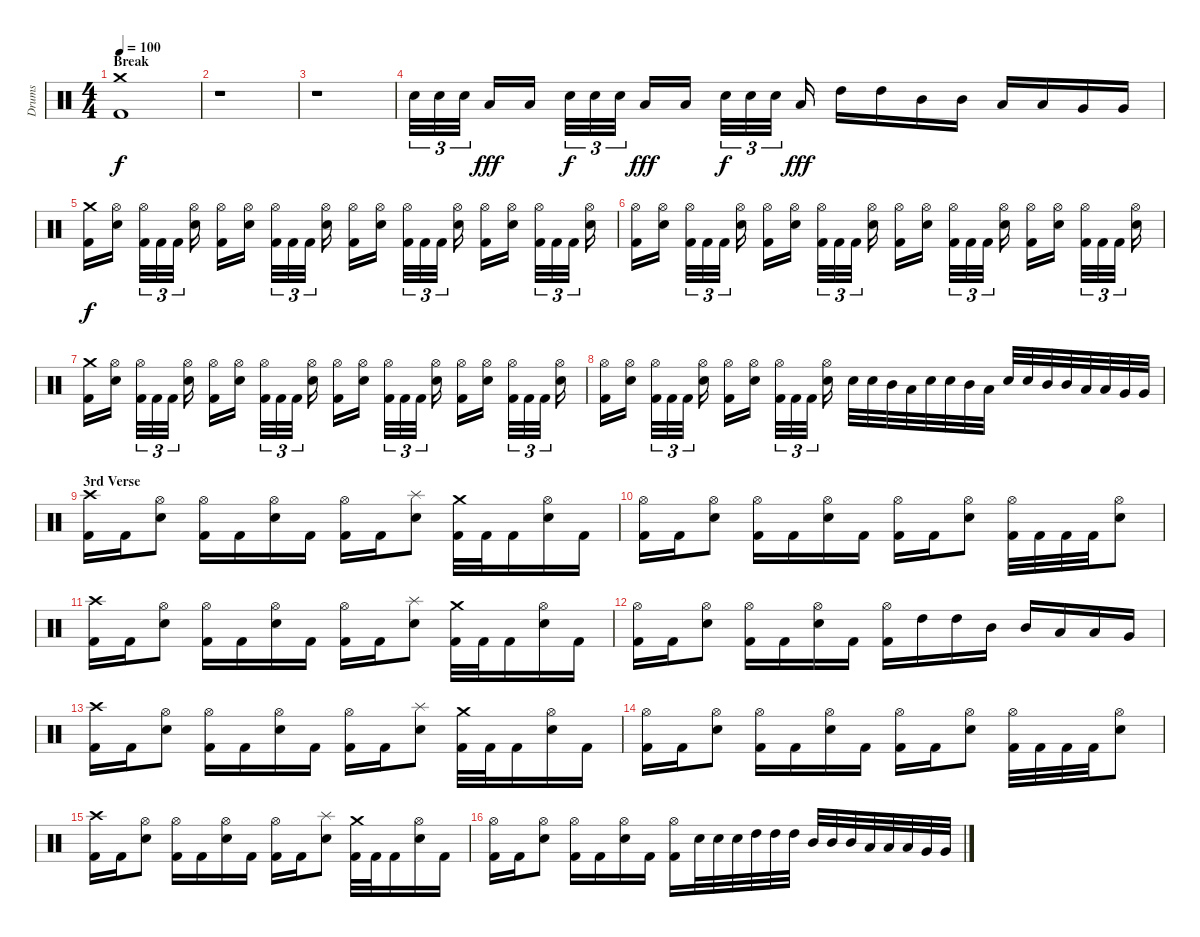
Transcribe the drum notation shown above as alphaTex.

\track ("Drums" "Drums") {instrument percussion}
\staff {score}
\articulation defaults
\ts (4 4)
\section ("" "Break")
\tempo 100
\clef neutral
\ks c
("Kick (hit) 2" "Crash medium (hit)").1{dy f} |
r.1 |
r.1 |
"Electric Snare (hit)".32{tu (3 2)} "Electric Snare (hit)".32{tu (3 2)} "Electric Snare (hit)".32{tu (3 2)} "Low Tom (hit)".16{dy fff} "Low Tom (hit)".16 "Electric Snare (hit)".32{tu (3 2) dy f} "Electric Snare (hit)".32{tu (3 2)} "Electric Snare (hit)".32{tu (3 2)} "Low Tom (hit)".16{dy fff} "Low Tom (hit)".16 "Electric Snare (hit)".32{tu (3 2) dy f} "Electric Snare (hit)".32{tu (3 2)} "Electric Snare (hit)".32{tu (3 2)} "Low Tom (hit)".16{dy fff} "High Tom (hit)".16 "High Tom (hit)".16 "Mid Tom (hit)".16 "Mid Tom (hit)".16 "Low Tom (hit)".16 "Low Tom (hit)".16 "Very Low Tom (hit)".16 "Very Low Tom (hit)".16 |
("Kick (hit) 2" "Crash medium (hit)").16{dy f} ("Electric Snare (hit)" "Hi-Hat (open)").16 ("Kick (hit) 2" "Hi-Hat (open)").32{tu (3 2)} "Kick (hit) 2".32{tu (3 2)} "Kick (hit) 2".32{tu (3 2)} ("Electric Snare (hit)" "Hi-Hat (open)").16 ("Kick (hit) 2" "Hi-Hat (open)").16 ("Electric Snare (hit)" "Hi-Hat (open)").16 ("Kick (hit) 2" "Hi-Hat (open)").32{tu (3 2)} "Kick (hit) 2".32{tu (3 2)} "Kick (hit) 2".32{tu (3 2)} ("Electric Snare (hit)" "Hi-Hat (open)").16 ("Kick (hit) 2" "Hi-Hat (open)").16 ("Electric Snare (hit)" "Hi-Hat (open)").16 ("Kick (hit) 2" "Hi-Hat (open)").32{tu (3 2)} "Kick (hit) 2".32{tu (3 2)} "Kick (hit) 2".32{tu (3 2)} ("Electric Snare (hit)" "Hi-Hat (open)").16 ("Kick (hit) 2" "Hi-Hat (open)").16 ("Electric Snare (hit)" "Hi-Hat (open)").16 ("Kick (hit) 2" "Hi-Hat (open)").32{tu (3 2)} "Kick (hit) 2".32{tu (3 2)} "Kick (hit) 2".32{tu (3 2)} ("Electric Snare (hit)" "Hi-Hat (open)").16 |
("Kick (hit) 2" "Hi-Hat (open)").16 ("Electric Snare (hit)" "Hi-Hat (open)").16 ("Kick (hit) 2" "Hi-Hat (open)").32{tu (3 2)} "Kick (hit) 2".32{tu (3 2)} "Kick (hit) 2".32{tu (3 2)} ("Electric Snare (hit)" "Hi-Hat (open)").16 ("Kick (hit) 2" "Hi-Hat (open)").16 ("Electric Snare (hit)" "Hi-Hat (open)").16 ("Kick (hit) 2" "Hi-Hat (open)").32{tu (3 2)} "Kick (hit) 2".32{tu (3 2)} "Kick (hit) 2".32{tu (3 2)} ("Electric Snare (hit)" "Hi-Hat (open)").16 ("Kick (hit) 2" "Hi-Hat (open)").16 ("Electric Snare (hit)" "Hi-Hat (open)").16 ("Kick (hit) 2" "Hi-Hat (open)").32{tu (3 2)} "Kick (hit) 2".32{tu (3 2)} "Kick (hit) 2".32{tu (3 2)} ("Electric Snare (hit)" "Hi-Hat (open)").16 ("Kick (hit) 2" "Hi-Hat (open)").16 ("Electric Snare (hit)" "Hi-Hat (open)").16 ("Kick (hit) 2" "Hi-Hat (open)").32{tu (3 2)} "Kick (hit) 2".32{tu (3 2)} "Kick (hit) 2".32{tu (3 2)} ("Electric Snare (hit)" "Hi-Hat (open)").16 |
("Kick (hit) 2" "Crash medium (hit)").16 ("Electric Snare (hit)" "Hi-Hat (open)").16 ("Kick (hit) 2" "Hi-Hat (open)").32{tu (3 2)} "Kick (hit) 2".32{tu (3 2)} "Kick (hit) 2".32{tu (3 2)} ("Electric Snare (hit)" "Hi-Hat (open)").16 ("Kick (hit) 2" "Hi-Hat (open)").16 ("Electric Snare (hit)" "Hi-Hat (open)").16 ("Kick (hit) 2" "Hi-Hat (open)").32{tu (3 2)} "Kick (hit) 2".32{tu (3 2)} "Kick (hit) 2".32{tu (3 2)} ("Electric Snare (hit)" "Hi-Hat (open)").16 ("Kick (hit) 2" "Hi-Hat (open)").16 ("Electric Snare (hit)" "Hi-Hat (open)").16 ("Kick (hit) 2" "Hi-Hat (open)").32{tu (3 2)} "Kick (hit) 2".32{tu (3 2)} "Kick (hit) 2".32{tu (3 2)} ("Electric Snare (hit)" "Hi-Hat (open)").16 ("Kick (hit) 2" "Hi-Hat (open)").16 ("Electric Snare (hit)" "Hi-Hat (open)").16 ("Kick (hit) 2" "Hi-Hat (open)").32{tu (3 2)} "Kick (hit) 2".32{tu (3 2)} "Kick (hit) 2".32{tu (3 2)} ("Electric Snare (hit)" "Hi-Hat (open)").16 |
("Kick (hit) 2" "Hi-Hat (open)").16 ("Electric Snare (hit)" "Hi-Hat (open)").16 ("Kick (hit) 2" "Hi-Hat (open)").32{tu (3 2)} "Kick (hit) 2".32{tu (3 2)} "Kick (hit) 2".32{tu (3 2)} ("Electric Snare (hit)" "Hi-Hat (open)").16 ("Kick (hit) 2" "Hi-Hat (open)").16 ("Electric Snare (hit)" "Hi-Hat (open)").16 ("Kick (hit) 2" "Hi-Hat (open)").32{tu (3 2)} "Kick (hit) 2".32{tu (3 2)} "Kick (hit) 2".32{tu (3 2)} ("Electric Snare (hit)" "Hi-Hat (open)").16 "Electric Snare (hit)".32 "Electric Snare (hit)".32 "Mid Tom (hit)".32 "Low Tom (hit)".32 "Electric Snare (hit)".32 "Electric Snare (hit)".32 "Mid Tom (hit)".32 "Low Tom (hit)".32 "Electric Snare (hit)".32 "Electric Snare (hit)".32 "Mid Tom (hit)".32 "Mid Tom (hit)".32 "Low Tom (hit)".32 "Low Tom (hit)".32 "Very Low Tom (hit)".32 "Very Low Tom (hit)".32 |
\section ("" "3rd Verse")
("Kick (hit) 2" "Crash high (hit)").16 "Kick (hit) 2".16 ("Electric Snare (hit)" "Hi-Hat (open)").8 ("Kick (hit) 2" "Hi-Hat (open)").16 "Kick (hit) 2".16 ("Electric Snare (hit)" "Hi-Hat (open)").16 "Kick (hit) 2".16 ("Kick (hit) 2" "Hi-Hat (open)").16 "Kick (hit) 2".16 ("Electric Snare (hit)" "Splash (hit)").8 ("Kick (hit) 2" "Crash medium (hit)").32 "Kick (hit) 2".32 "Kick (hit) 2".16 ("Electric Snare (hit)" "Hi-Hat (open)").16 "Kick (hit) 2".16 |
("Kick (hit) 2" "Hi-Hat (open)").16 "Kick (hit) 2".16 ("Electric Snare (hit)" "Hi-Hat (open)").8 ("Kick (hit) 2" "Hi-Hat (open)").16 "Kick (hit) 2".16 ("Electric Snare (hit)" "Hi-Hat (open)").16 "Kick (hit) 2".16 ("Kick (hit) 2" "Hi-Hat (open)").16 "Kick (hit) 2".16 ("Electric Snare (hit)" "Hi-Hat (open)").8 ("Kick (hit) 2" "Hi-Hat (open)").32 "Kick (hit) 2".32 "Kick (hit) 2".32 "Kick (hit) 2".32 ("Electric Snare (hit)" "Hi-Hat (open)").8 |
("Kick (hit) 2" "Crash high (hit)").16 "Kick (hit) 2".16 ("Electric Snare (hit)" "Hi-Hat (open)").8 ("Kick (hit) 2" "Hi-Hat (open)").16 "Kick (hit) 2".16 ("Electric Snare (hit)" "Hi-Hat (open)").16 "Kick (hit) 2".16 ("Kick (hit) 2" "Hi-Hat (open)").16 "Kick (hit) 2".16 ("Electric Snare (hit)" "Splash (hit)").8 ("Kick (hit) 2" "Crash medium (hit)").32 "Kick (hit) 2".32 "Kick (hit) 2".16 ("Electric Snare (hit)" "Hi-Hat (open)").16 "Kick (hit) 2".16 |
("Kick (hit) 2" "Hi-Hat (open)").16 "Kick (hit) 2".16 ("Electric Snare (hit)" "Hi-Hat (open)").8 ("Kick (hit) 2" "Hi-Hat (open)").16 "Kick (hit) 2".16 ("Electric Snare (hit)" "Hi-Hat (open)").16 "Kick (hit) 2".16 ("Kick (hit) 2" "Hi-Hat (open)").16 "High Tom (hit)".16 "High Tom (hit)".16 "Mid Tom (hit)".16 "Mid Tom (hit)".16 "Low Tom (hit)".16 "Low Tom (hit)".16 "Very Low Tom (hit)".16 |
("Kick (hit) 2" "Crash high (hit)").16 "Kick (hit) 2".16 ("Electric Snare (hit)" "Hi-Hat (open)").8 ("Kick (hit) 2" "Hi-Hat (open)").16 "Kick (hit) 2".16 ("Electric Snare (hit)" "Hi-Hat (open)").16 "Kick (hit) 2".16 ("Kick (hit) 2" "Hi-Hat (open)").16 "Kick (hit) 2".16 ("Electric Snare (hit)" "Splash (hit)").8 ("Kick (hit) 2" "Crash medium (hit)").32 "Kick (hit) 2".32 "Kick (hit) 2".16 ("Electric Snare (hit)" "Hi-Hat (open)").16 "Kick (hit) 2".16 |
("Kick (hit) 2" "Hi-Hat (open)").16 "Kick (hit) 2".16 ("Electric Snare (hit)" "Hi-Hat (open)").8 ("Kick (hit) 2" "Hi-Hat (open)").16 "Kick (hit) 2".16 ("Electric Snare (hit)" "Hi-Hat (open)").16 "Kick (hit) 2".16 ("Kick (hit) 2" "Hi-Hat (open)").16 "Kick (hit) 2".16 ("Electric Snare (hit)" "Hi-Hat (open)").8 ("Kick (hit) 2" "Hi-Hat (open)").32 "Kick (hit) 2".32 "Kick (hit) 2".32 "Kick (hit) 2".32 ("Electric Snare (hit)" "Hi-Hat (open)").8 |
("Kick (hit) 2" "Crash high (hit)").16 "Kick (hit) 2".16 ("Electric Snare (hit)" "Hi-Hat (open)").8 ("Kick (hit) 2" "Hi-Hat (open)").16 "Kick (hit) 2".16 ("Electric Snare (hit)" "Hi-Hat (open)").16 "Kick (hit) 2".16 ("Kick (hit) 2" "Hi-Hat (open)").16 "Kick (hit) 2".16 ("Electric Snare (hit)" "Splash (hit)").8 ("Kick (hit) 2" "Crash medium (hit)").32 "Kick (hit) 2".32 "Kick (hit) 2".16 ("Electric Snare (hit)" "Hi-Hat (open)").16 "Kick (hit) 2".16 |
("Kick (hit) 2" "Hi-Hat (open)").16 "Kick (hit) 2".16 ("Electric Snare (hit)" "Hi-Hat (open)").8 ("Kick (hit) 2" "Hi-Hat (open)").16 "Kick (hit) 2".16 ("Electric Snare (hit)" "Hi-Hat (open)").16 "Kick (hit) 2".16 ("Kick (hit) 2" "Hi-Hat (open)").16 "Electric Snare (hit)".32 "Electric Snare (hit)".32 "Electric Snare (hit)".32 "High Tom (hit)".32 "High Tom (hit)".32 "High Tom (hit)".32 "Mid Tom (hit)".32 "Mid Tom (hit)".32 "Mid Tom (hit)".32 "Low Tom (hit)".32 "Low Tom (hit)".32 "Low Tom (hit)".32 "Very Low Tom (hit)".32 "Very Low Tom (hit)".32
